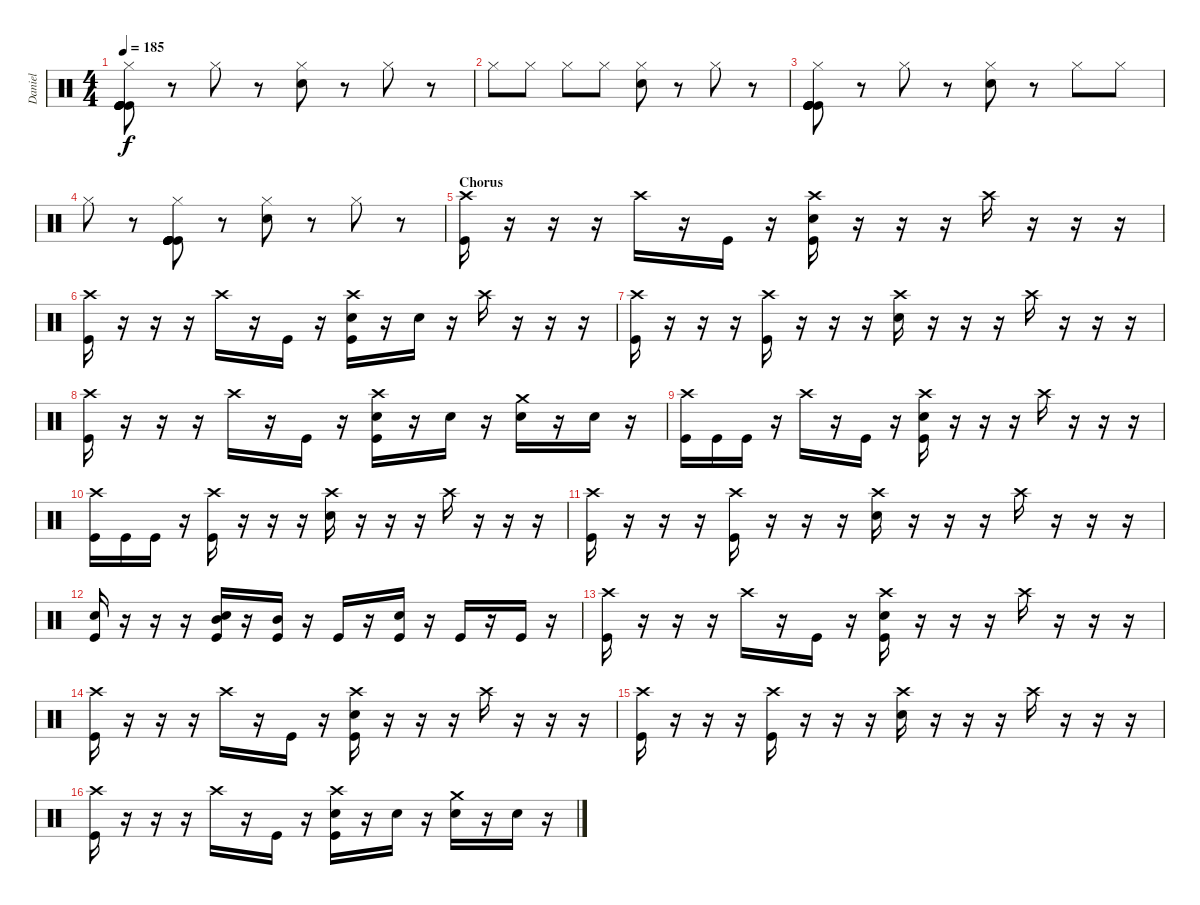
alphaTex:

\track ("Daniel" "Daniel") {instrument percussion}
\staff {score}
\articulation defaults
\ts (4 4)
\tempo 185
\clef neutral
\ks c
("Kick (hit)" "Kick (hit)" "Kick (hit)" "Hi-Hat (closed)" "Kick (hit)" "Kick (hit)").8{dy f volume 6} r.8 "Hi-Hat (closed)".8 r.8 ("Hi-Hat (closed)" "Snare (hit) 2").8 r.8 "Hi-Hat (closed)".8 r.8 |
"Hi-Hat (closed)".8 "Hi-Hat (closed)".8 "Hi-Hat (closed)".8 "Hi-Hat (closed)".8 ("Hi-Hat (closed)" "Snare (hit) 2").8 r.8 "Hi-Hat (closed)".8 r.8 |
("Kick (hit)" "Kick (hit)" "Kick (hit)" "Hi-Hat (closed)" "Kick (hit)" "Kick (hit)").8 r.8 "Hi-Hat (closed)".8 r.8 ("Hi-Hat (closed)" "Snare (hit) 2").8 r.8 "Hi-Hat (closed)".8 "Hi-Hat (closed)".8 |
"Hi-Hat (closed)".8 r.8 ("Kick (hit)" "Kick (hit)" "Kick (hit)" "Hi-Hat (closed)" "Kick (hit)" "Kick (hit)").8 r.8 ("Hi-Hat (closed)" "Snare (hit) 2").8 r.8 "Hi-Hat (closed)".8 r.8 |
\section ("" "Chorus")
("Crash high (hit)" "Kick (hit)").16{volume 14} r.16 r.16 r.16 "Crash high (hit)".16 r.16 "Kick (hit)".16 r.16 ("Crash high (hit)" "Snare (hit) 2" "Kick (hit)").16 r.16 r.16 r.16 "Crash high (hit)".16 r.16 r.16 r.16 |
("Crash high (hit)" "Kick (hit)").16 r.16 r.16 r.16 "Crash high (hit)".16 r.16 "Kick (hit)".16 r.16 ("Crash high (hit)" "Snare (hit) 2" "Kick (hit)").16 r.16 "Snare (hit) 2".16 r.16 "Crash high (hit)".16 r.16 r.16 r.16 |
("Crash high (hit)" "Kick (hit)").16 r.16 r.16 r.16 ("Crash high (hit)" "Kick (hit)").16 r.16 r.16 r.16 ("Crash high (hit)" "Snare (hit) 2").16 r.16 r.16 r.16 "Crash high (hit)".16 r.16 r.16 r.16 |
("Crash high (hit)" "Kick (hit)").16 r.16 r.16 r.16 "Crash high (hit)".16 r.16 "Kick (hit)".16 r.16 ("Crash high (hit)" "Snare (hit) 2" "Kick (hit)").16 r.16 "Snare (hit) 2".16 r.16 ("Crash medium (hit)" "Snare (hit) 2").16 r.16 "Snare (hit) 2".16 r.16 |
("Crash high (hit)" "Kick (hit)").16 "Kick (hit)".16 "Kick (hit)".16 r.16 "Crash high (hit)".16 r.16 "Kick (hit)".16 r.16 ("Crash high (hit)" "Snare (hit) 2" "Kick (hit)").16 r.16 r.16 r.16 "Crash high (hit)".16 r.16 r.16 r.16 |
("Crash high (hit)" "Kick (hit)").16 "Kick (hit)".16 "Kick (hit)".16 r.16 ("Crash high (hit)" "Kick (hit)").16 r.16 r.16 r.16 ("Crash high (hit)" "Snare (hit) 2").16 r.16 r.16 r.16 "Crash high (hit)".16 r.16 r.16 r.16 |
("Crash high (hit)" "Kick (hit)").16 r.16 r.16 r.16 ("Crash high (hit)" "Kick (hit)").16 r.16 r.16 r.16 ("Crash high (hit)" "Snare (hit) 2").16 r.16 r.16 r.16 "Crash high (hit)".16 r.16 r.16 r.16 |
("Snare (hit) 2" "Kick (hit)").16 r.16 r.16 r.16 ("Snare (hit) 2" "Mid Tom (hit)" "Kick (hit)").16 r.16 ("Mid Tom (hit)" "Kick (hit)").16 r.16 "Kick (hit)".16 r.16 ("Snare (hit) 2" "Kick (hit)").16 r.16 "Kick (hit)".16 r.16 "Kick (hit)".16 r.16 |
("Crash high (hit)" "Kick (hit)").16 r.16 r.16 r.16 "Crash high (hit)".16 r.16 "Kick (hit)".16 r.16 ("Crash high (hit)" "Snare (hit) 2" "Kick (hit)").16 r.16 r.16 r.16 "Crash high (hit)".16 r.16 r.16 r.16 |
("Crash high (hit)" "Kick (hit)").16 r.16 r.16 r.16 "Crash high (hit)".16 r.16 "Kick (hit)".16 r.16 ("Crash high (hit)" "Snare (hit) 2" "Kick (hit)").16 r.16 r.16 r.16 "Crash high (hit)".16 r.16 r.16 r.16 |
("Crash high (hit)" "Kick (hit)").16 r.16 r.16 r.16 ("Crash high (hit)" "Kick (hit)").16 r.16 r.16 r.16 ("Crash high (hit)" "Snare (hit) 2").16 r.16 r.16 r.16 "Crash high (hit)".16 r.16 r.16 r.16 |
("Crash high (hit)" "Kick (hit)").16 r.16 r.16 r.16 "Crash high (hit)".16 r.16 "Kick (hit)".16 r.16 ("Crash high (hit)" "Snare (hit) 2" "Kick (hit)").16 r.16 "Snare (hit) 2".16 r.16 ("Crash medium (hit)" "Snare (hit) 2").16 r.16 "Snare (hit) 2".16 r.16
